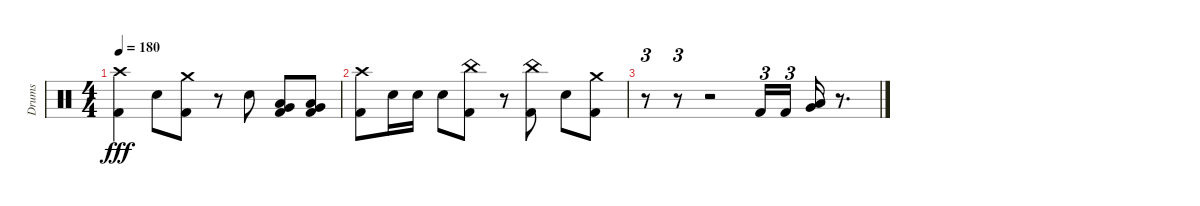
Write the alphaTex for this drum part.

\track ("Drums" "Drums") {instrument percussion}
\staff {score}
\articulation defaults
\ts (4 4)
\tempo 180
\clef neutral
\ks aminor
("Kick (hit) 2" "Crash high (hit)").4{dy fff} "Snare (hit) 2".8 ("Kick (hit) 2" "Crash medium (hit)").8 r.8 "Snare (hit) 2".8 ("Kick (hit) 2" "Low Floor Tom (hit)" "Very Low Tom (hit)").8 ("Low Floor Tom (hit)" "Kick (hit) 2" "Very Low Tom (hit)").8 |
("Kick (hit) 2" "Crash high (hit)").8 "Snare (hit) 2".16 "Snare (hit) 2".16 "Snare (hit) 2".8 ("Kick (hit) 2" "China (hit)").8 r.8 ("Kick (hit) 2" "China (hit)").8 "Snare (hit) 2".8 ("Kick (hit) 2" "Crash medium (hit)").8 |
r.8{tu (3 2)} r.8{tu (3 2)} r.2 "Kick (hit) 2".16{tu (3 2)} "Kick (hit) 2".16{tu (3 2)} ("Very Low Tom (hit)" "Low Floor Tom (hit)").16 r.8{d}
